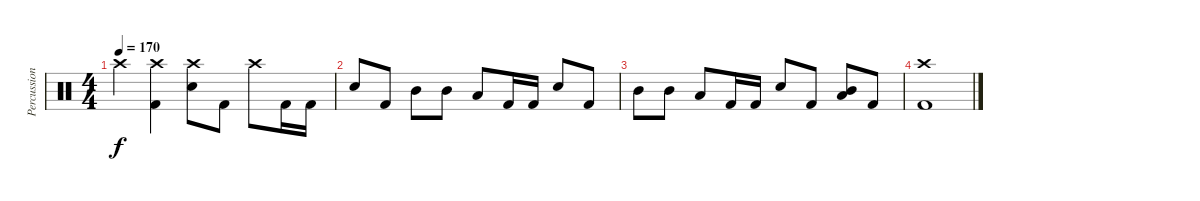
\track ("Percussion" "Percussion") {instrument percussion}
\staff {score}
\articulation defaults
\ts (4 4)
\tempo 170
\clef neutral
\ks c "Crash high (hit)".4{dy f}
("Crash high (hit)" "Kick (hit) 2").4 ("Crash high (hit)" "Electric Snare (hit)").8 "Kick (hit) 2".8 "Crash high (hit)".8 "Kick (hit) 2".16 "Kick (hit) 2".16 |
"Electric Snare (hit)".8 "Kick (hit) 2".8 "Mid Tom (hit)".8 "Mid Tom (hit)".8 "Low Tom (hit)".8 "Kick (hit) 2".16 "Kick (hit) 2".16 "Electric Snare (hit)".8 "Kick (hit) 2".8 |
"Mid Tom (hit)".8 "Mid Tom (hit)".8 "Low Tom (hit)".8 "Kick (hit) 2".16 "Kick (hit) 2".16 "Electric Snare (hit)".8 "Kick (hit) 2".8 ("Mid Tom (hit)" "Low Tom (hit)").8 "Kick (hit) 2".8 |
("Crash high (hit)" "Kick (hit) 2").1
